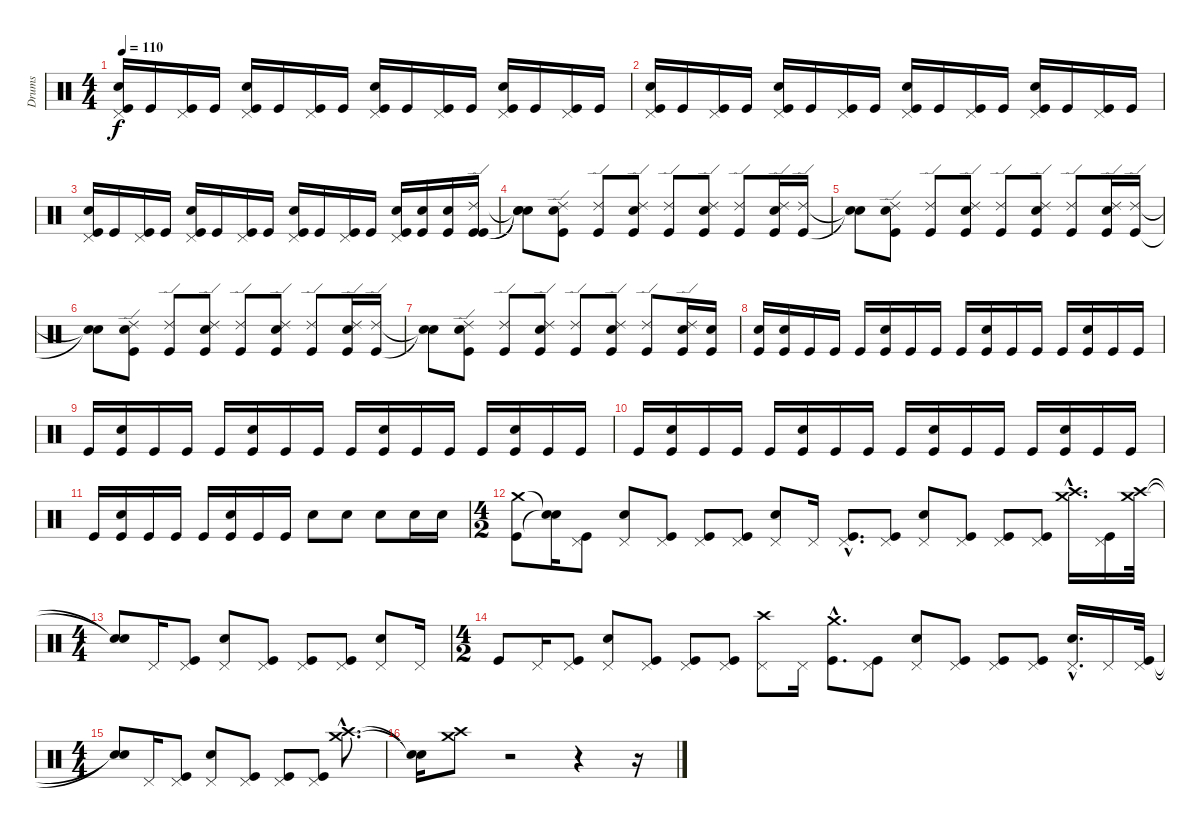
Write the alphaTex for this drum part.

\track ("Drums" "Drums") {instrument percussion}
\staff {score}
\articulation defaults
\ts (4 4)
\tempo 110
\clef neutral
\ks c
("Pedal Hi-Hat (hit)" "Electric Snare (hit)" "Kick (hit)").16{dy f} "Kick (hit)".16 ("Pedal Hi-Hat (hit)" "Kick (hit)").16 "Kick (hit)".16 ("Pedal Hi-Hat (hit)" "Electric Snare (hit)" "Kick (hit)").16 "Kick (hit)".16 ("Pedal Hi-Hat (hit)" "Kick (hit)").16 "Kick (hit)".16 ("Pedal Hi-Hat (hit)" "Electric Snare (hit)" "Kick (hit)").16 "Kick (hit)".16 ("Pedal Hi-Hat (hit)" "Kick (hit)").16 "Kick (hit)".16 ("Pedal Hi-Hat (hit)" "Electric Snare (hit)" "Kick (hit)").16 "Kick (hit)".16 ("Pedal Hi-Hat (hit)" "Kick (hit)").16 "Kick (hit)".16 |
("Pedal Hi-Hat (hit)" "Electric Snare (hit)" "Kick (hit)").16 "Kick (hit)".16 ("Pedal Hi-Hat (hit)" "Kick (hit)").16 "Kick (hit)".16 ("Pedal Hi-Hat (hit)" "Electric Snare (hit)" "Kick (hit)").16 "Kick (hit)".16 ("Pedal Hi-Hat (hit)" "Kick (hit)").16 "Kick (hit)".16 ("Pedal Hi-Hat (hit)" "Electric Snare (hit)" "Kick (hit)").16 "Kick (hit)".16 ("Pedal Hi-Hat (hit)" "Kick (hit)").16 "Kick (hit)".16 ("Pedal Hi-Hat (hit)" "Electric Snare (hit)" "Kick (hit)").16 "Kick (hit)".16 ("Pedal Hi-Hat (hit)" "Kick (hit)").16 "Kick (hit)".16 |
("Pedal Hi-Hat (hit)" "Electric Snare (hit)" "Kick (hit)").16 "Kick (hit)".16 ("Pedal Hi-Hat (hit)" "Kick (hit)").16 "Kick (hit)".16 ("Pedal Hi-Hat (hit)" "Electric Snare (hit)" "Kick (hit)").16 "Kick (hit)".16 ("Pedal Hi-Hat (hit)" "Kick (hit)").16 "Kick (hit)".16 ("Pedal Hi-Hat (hit)" "Electric Snare (hit)" "Kick (hit)").16 "Kick (hit)".16 ("Pedal Hi-Hat (hit)" "Kick (hit)").16 "Kick (hit)".16 ("Pedal Hi-Hat (hit)" "Electric Snare (hit)" "Kick (hit)").16 ("Electric Snare (hit)" "Kick (hit)").16 ("Electric Snare (hit)" "Kick (hit)").16 ("Ride (edge) 2" "Kick (hit)" "Kick (hit)").16 |
("Snare (hit)"{t} "Snare (hit)"{t} "Snare (hit)"{t}).8 ("Ride (edge) 2" "Electric Snare (hit)" "Kick (hit)").8 ("Ride (edge) 2" "Kick (hit)").8 ("Ride (edge) 2" "Electric Snare (hit)" "Kick (hit)").8 ("Ride (edge) 2" "Kick (hit)").8 ("Ride (edge) 2" "Electric Snare (hit)" "Kick (hit)").8 ("Ride (edge) 2" "Kick (hit)").8 ("Ride (edge) 2" "Electric Snare (hit)" "Kick (hit)").16 ("Ride (edge) 2" "Kick (hit)").16 |
("Snare (hit)"{t} "Snare (hit)"{t}).8 ("Ride (edge) 2" "Electric Snare (hit)" "Kick (hit)").8 ("Ride (edge) 2" "Kick (hit)").8 ("Ride (edge) 2" "Electric Snare (hit)" "Kick (hit)").8 ("Ride (edge) 2" "Kick (hit)").8 ("Ride (edge) 2" "Electric Snare (hit)" "Kick (hit)").8 ("Ride (edge) 2" "Kick (hit)").8 ("Ride (edge) 2" "Electric Snare (hit)" "Kick (hit)").16 ("Ride (edge) 2" "Kick (hit)").16 |
("Snare (hit)"{t} "Snare (hit)"{t}).8 ("Ride (edge) 2" "Electric Snare (hit)" "Kick (hit)").8 ("Ride (edge) 2" "Kick (hit)").8 ("Ride (edge) 2" "Electric Snare (hit)" "Kick (hit)").8 ("Ride (edge) 2" "Kick (hit)").8 ("Ride (edge) 2" "Electric Snare (hit)" "Kick (hit)").8 ("Ride (edge) 2" "Kick (hit)").8 ("Ride (edge) 2" "Electric Snare (hit)" "Kick (hit)").16 ("Ride (edge) 2" "Kick (hit)").16 |
("Snare (hit)"{t} "Snare (hit)"{t}).8 ("Ride (edge) 2" "Electric Snare (hit)" "Kick (hit)").8 ("Ride (edge) 2" "Kick (hit)").8 ("Ride (edge) 2" "Electric Snare (hit)" "Kick (hit)").8 ("Ride (edge) 2" "Kick (hit)").8 ("Ride (edge) 2" "Electric Snare (hit)" "Kick (hit)").8 ("Ride (edge) 2" "Kick (hit)").8 ("Ride (edge) 2" "Electric Snare (hit)" "Kick (hit)").16 ("Electric Snare (hit)" "Kick (hit)").16 |
("Electric Snare (hit)" "Kick (hit)").16 ("Electric Snare (hit)" "Kick (hit)").16 "Kick (hit)".16 "Kick (hit)".16 "Kick (hit)".16 ("Electric Snare (hit)" "Kick (hit)").16 "Kick (hit)".16 "Kick (hit)".16 "Kick (hit)".16 ("Electric Snare (hit)" "Kick (hit)").16 "Kick (hit)".16 "Kick (hit)".16 "Kick (hit)".16 ("Electric Snare (hit)" "Kick (hit)").16 "Kick (hit)".16 "Kick (hit)".16 |
"Kick (hit)".16 ("Electric Snare (hit)" "Kick (hit)").16 "Kick (hit)".16 "Kick (hit)".16 "Kick (hit)".16 ("Electric Snare (hit)" "Kick (hit)").16 "Kick (hit)".16 "Kick (hit)".16 "Kick (hit)".16 ("Electric Snare (hit)" "Kick (hit)").16 "Kick (hit)".16 "Kick (hit)".16 "Kick (hit)".16 ("Electric Snare (hit)" "Kick (hit)").16 "Kick (hit)".16 "Kick (hit)".16 |
"Kick (hit)".16 ("Electric Snare (hit)" "Kick (hit)").16 "Kick (hit)".16 "Kick (hit)".16 "Kick (hit)".16 ("Electric Snare (hit)" "Kick (hit)").16 "Kick (hit)".16 "Kick (hit)".16 "Kick (hit)".16 ("Electric Snare (hit)" "Kick (hit)").16 "Kick (hit)".16 "Kick (hit)".16 "Kick (hit)".16 ("Electric Snare (hit)" "Kick (hit)").16 "Kick (hit)".16 "Kick (hit)".16 |
"Kick (hit)".16 ("Electric Snare (hit)" "Kick (hit)").16 "Kick (hit)".16 "Kick (hit)".16 "Kick (hit)".16 ("Electric Snare (hit)" "Kick (hit)").16 "Kick (hit)".16 "Kick (hit)".16 "Electric Snare (hit)".8 "Electric Snare (hit)".8 "Electric Snare (hit)".8 "Electric Snare (hit)".16 "Electric Snare (hit)".16 |
\ts (4 2)
("Crash medium (hit)" "Kick (hit)").8 ("Snare (hit)"{t} "Snare (hit)"{t}).16 ("Pedal Hi-Hat (hit)" "Kick (hit)").8 ("Pedal Hi-Hat (hit)" "Electric Snare (hit)").8 ("Pedal Hi-Hat (hit)" "Kick (hit)").8 ("Pedal Hi-Hat (hit)" "Kick (hit)").8 ("Pedal Hi-Hat (hit)" "Kick (hit)").8 ("Electric Snare (hit)" "Pedal Hi-Hat (hit)").8 "Pedal Hi-Hat (hit)".16 ("Pedal Hi-Hat (hit)"{hac} "Kick (hit)"{hac}).8{d} ("Pedal Hi-Hat (hit)" "Kick (hit)").8 ("Pedal Hi-Hat (hit)" "Electric Snare (hit)").8 ("Pedal Hi-Hat (hit)" "Kick (hit)").8 ("Pedal Hi-Hat (hit)" "Kick (hit)").8 ("Pedal Hi-Hat (hit)" "Kick (hit)").8 ("Crash medium (hit)"{hac} "Crash high (hit)"{hac}).16{d} ("Pedal Hi-Hat (hit)" "Kick (hit)").16 ("Crash high (hit)" "Crash medium (hit)").32 |
\ts (4 4)
("Snare (hit)"{t} "Snare (hit)"{t}).8 "Pedal Hi-Hat (hit)".16 ("Pedal Hi-Hat (hit)" "Kick (hit)").8 ("Pedal Hi-Hat (hit)" "Electric Snare (hit)").8 ("Pedal Hi-Hat (hit)" "Kick (hit)").8 ("Pedal Hi-Hat (hit)" "Kick (hit)").8 ("Pedal Hi-Hat (hit)" "Kick (hit)").8 ("Electric Snare (hit)" "Pedal Hi-Hat (hit)").8 "Pedal Hi-Hat (hit)".16 |
\ts (4 2)
"Kick (hit)".8 "Pedal Hi-Hat (hit)".16 ("Pedal Hi-Hat (hit)" "Kick (hit)").8 ("Pedal Hi-Hat (hit)" "Electric Snare (hit)").8 ("Pedal Hi-Hat (hit)" "Kick (hit)").8 ("Pedal Hi-Hat (hit)" "Kick (hit)").8 ("Pedal Hi-Hat (hit)" "Kick (hit)").8 ("Crash high (hit)" "Pedal Hi-Hat (hit)").8 "Pedal Hi-Hat (hit)".16 ("Crash medium (hit)"{hac} "Kick (hit)"{hac}).8{d} ("Pedal Hi-Hat (hit)" "Kick (hit)").8 ("Pedal Hi-Hat (hit)" "Electric Snare (hit)").8 ("Pedal Hi-Hat (hit)" "Kick (hit)").8 ("Pedal Hi-Hat (hit)" "Kick (hit)").8 ("Pedal Hi-Hat (hit)" "Kick (hit)").8 ("Pedal Hi-Hat (hit)"{hac} "Electric Snare (hit)"{hac}).16{d} "Pedal Hi-Hat (hit)".16 ("Pedal Hi-Hat (hit)" "Kick (hit)").32 |
\ts (4 4)
("Snare (hit)"{t} "Snare (hit)"{t}).8 "Pedal Hi-Hat (hit)".16 ("Pedal Hi-Hat (hit)" "Kick (hit)").8 ("Pedal Hi-Hat (hit)" "Electric Snare (hit)").8 ("Pedal Hi-Hat (hit)" "Kick (hit)").8 ("Pedal Hi-Hat (hit)" "Kick (hit)").8 ("Pedal Hi-Hat (hit)" "Kick (hit)").8 ("Crash medium (hit)"{hac} "Crash high (hit)"{hac}).8{d} |
("Snare (hit)"{t} "Snare (hit)"{t}).16 ("Crash high (hit)" "Crash medium (hit)").8 r.2 r.4 r.16
